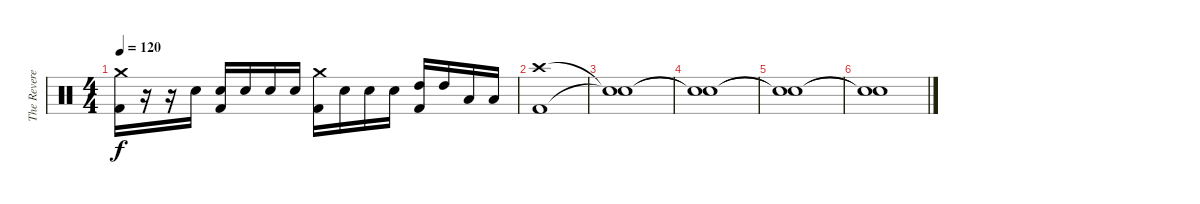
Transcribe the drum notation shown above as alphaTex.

\track ("The Reverend" "The Revere") {instrument percussion}
\staff {score}
\articulation defaults
\ts (4 4)
\tempo 120
\clef neutral
\ks c
("Crash medium (hit)" "Kick (hit) 2").16{dy f} r.16 r.16 "Electric Snare (hit)".16 ("Electric Snare (hit)" "Kick (hit) 2").16 "Electric Snare (hit)".16 "Electric Snare (hit)".16 "Electric Snare (hit)".16 ("Crash medium (hit)" "Kick (hit) 2").16 "Electric Snare (hit)".16 "Electric Snare (hit)".16 "Electric Snare (hit)".16 ("High Tom (hit)" "Kick (hit) 2").16 "High Tom (hit)".16 "Low Tom (hit)".16 "Low Tom (hit)".16 |
("Crash high (hit)" "Kick (hit) 2").1 |
("Snare (hit)"{t} "Snare (hit)"{t}).1 |
("Snare (hit)"{t} "Snare (hit)"{t}).1 |
("Snare (hit)"{t} "Snare (hit)"{t}).1 |
("Snare (hit)"{t} "Snare (hit)"{t}).1
